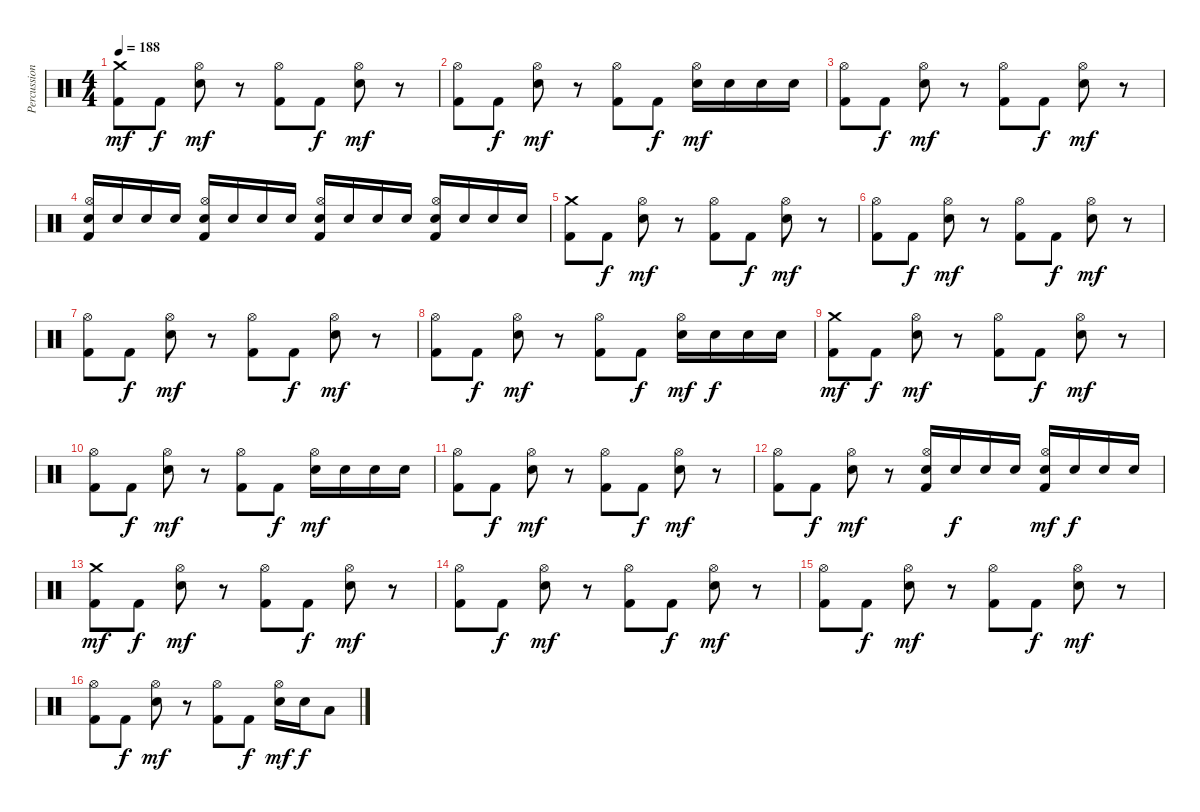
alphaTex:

\track ("Percussion" "Percussion") {instrument percussion}
\staff {score}
\articulation defaults
\ts (4 4)
\tempo 188
\clef neutral
\ks c
("Crash medium (hit)" "Kick (hit) 2").8{dy mf} "Kick (hit) 2".8{dy f} ("Hi-Hat (open)" "Snare (hit) 2").8{dy mf} r.8 ("Hi-Hat (open)" "Kick (hit) 2").8 "Kick (hit) 2".8{dy f} ("Hi-Hat (open)" "Snare (hit) 2").8{dy mf} r.8 |
("Hi-Hat (open)" "Kick (hit) 2").8 "Kick (hit) 2".8{dy f} ("Hi-Hat (open)" "Snare (hit) 2").8{dy mf} r.8 ("Hi-Hat (open)" "Kick (hit) 2").8 "Kick (hit) 2".8{dy f} ("Hi-Hat (open)" "Snare (hit) 2").16{dy mf} "Snare (hit) 2".16 "Snare (hit) 2".16 "Snare (hit) 2".16 |
("Hi-Hat (open)" "Kick (hit) 2").8 "Kick (hit) 2".8{dy f} ("Hi-Hat (open)" "Snare (hit) 2").8{dy mf} r.8 ("Hi-Hat (open)" "Kick (hit) 2").8 "Kick (hit) 2".8{dy f} ("Hi-Hat (open)" "Snare (hit) 2").8{dy mf} r.8 |
("Hi-Hat (open)" "Snare (hit) 2" "Kick (hit) 2").16 "Snare (hit) 2".16 "Snare (hit) 2".16 "Snare (hit) 2".16 ("Hi-Hat (open)" "Snare (hit) 2" "Kick (hit) 2").16 "Snare (hit) 2".16 "Snare (hit) 2".16 "Snare (hit) 2".16 ("Hi-Hat (open)" "Snare (hit) 2" "Kick (hit) 2").16 "Snare (hit) 2".16 "Snare (hit) 2".16 "Snare (hit) 2".16 ("Hi-Hat (open)" "Snare (hit) 2" "Kick (hit) 2").16 "Snare (hit) 2".16 "Snare (hit) 2".16 "Snare (hit) 2".16 |
("Crash medium (hit)" "Kick (hit) 2").8 "Kick (hit) 2".8{dy f} ("Hi-Hat (open)" "Snare (hit) 2").8{dy mf} r.8 ("Hi-Hat (open)" "Kick (hit) 2").8 "Kick (hit) 2".8{dy f} ("Hi-Hat (open)" "Snare (hit) 2").8{dy mf} r.8 |
("Hi-Hat (open)" "Kick (hit) 2").8 "Kick (hit) 2".8{dy f} ("Hi-Hat (open)" "Snare (hit) 2").8{dy mf} r.8 ("Hi-Hat (open)" "Kick (hit) 2").8 "Kick (hit) 2".8{dy f} ("Hi-Hat (open)" "Snare (hit) 2").8{dy mf} r.8 |
("Hi-Hat (open)" "Kick (hit) 2").8 "Kick (hit) 2".8{dy f} ("Hi-Hat (open)" "Snare (hit) 2").8{dy mf} r.8 ("Hi-Hat (open)" "Kick (hit) 2").8 "Kick (hit) 2".8{dy f} ("Hi-Hat (open)" "Snare (hit) 2").8{dy mf} r.8 |
("Hi-Hat (open)" "Kick (hit) 2").8 "Kick (hit) 2".8{dy f} ("Hi-Hat (open)" "Snare (hit) 2").8{dy mf} r.8 ("Hi-Hat (open)" "Kick (hit) 2").8 "Kick (hit) 2".8{dy f} ("Hi-Hat (open)" "Snare (hit) 2").16{dy mf} "Snare (hit) 2".16{dy f} "Snare (hit) 2".16 "Snare (hit) 2".16 |
("Crash medium (hit)" "Kick (hit) 2").8{dy mf} "Kick (hit) 2".8{dy f} ("Hi-Hat (open)" "Snare (hit) 2").8{dy mf} r.8 ("Hi-Hat (open)" "Kick (hit) 2").8 "Kick (hit) 2".8{dy f} ("Hi-Hat (open)" "Snare (hit) 2").8{dy mf} r.8 |
("Hi-Hat (open)" "Kick (hit) 2").8 "Kick (hit) 2".8{dy f} ("Hi-Hat (open)" "Snare (hit) 2").8{dy mf} r.8 ("Hi-Hat (open)" "Kick (hit) 2").8 "Kick (hit) 2".8{dy f} ("Hi-Hat (open)" "Snare (hit) 2").16{dy mf} "Snare (hit) 2".16 "Snare (hit) 2".16 "Snare (hit) 2".16 |
("Hi-Hat (open)" "Kick (hit) 2").8 "Kick (hit) 2".8{dy f} ("Hi-Hat (open)" "Snare (hit) 2").8{dy mf} r.8 ("Hi-Hat (open)" "Kick (hit) 2").8 "Kick (hit) 2".8{dy f} ("Hi-Hat (open)" "Snare (hit) 2").8{dy mf} r.8 |
("Hi-Hat (open)" "Kick (hit) 2").8 "Kick (hit) 2".8{dy f} ("Hi-Hat (open)" "Snare (hit) 2").8{dy mf} r.8 ("Hi-Hat (open)" "Snare (hit) 2" "Kick (hit) 2").16 "Snare (hit) 2".16{dy f} "Snare (hit) 2".16 "Snare (hit) 2".16 ("Hi-Hat (open)" "Snare (hit) 2" "Kick (hit) 2").16{dy mf} "Snare (hit) 2".16{dy f} "Snare (hit) 2".16 "Snare (hit) 2".16 |
("Crash medium (hit)" "Kick (hit) 2").8{dy mf} "Kick (hit) 2".8{dy f} ("Hi-Hat (open)" "Snare (hit) 2").8{dy mf} r.8 ("Hi-Hat (open)" "Kick (hit) 2").8 "Kick (hit) 2".8{dy f} ("Hi-Hat (open)" "Snare (hit) 2").8{dy mf} r.8 |
("Hi-Hat (open)" "Kick (hit) 2").8 "Kick (hit) 2".8{dy f} ("Hi-Hat (open)" "Snare (hit) 2").8{dy mf} r.8 ("Hi-Hat (open)" "Kick (hit) 2").8 "Kick (hit) 2".8{dy f} ("Hi-Hat (open)" "Snare (hit) 2").8{dy mf} r.8 |
("Hi-Hat (open)" "Kick (hit) 2").8 "Kick (hit) 2".8{dy f} ("Hi-Hat (open)" "Snare (hit) 2").8{dy mf} r.8 ("Hi-Hat (open)" "Kick (hit) 2").8 "Kick (hit) 2".8{dy f} ("Hi-Hat (open)" "Snare (hit) 2").8{dy mf} r.8 |
("Hi-Hat (open)" "Kick (hit) 2").8 "Kick (hit) 2".8{dy f} ("Hi-Hat (open)" "Snare (hit) 2").8{dy mf} r.8 ("Hi-Hat (open)" "Kick (hit) 2").8 "Kick (hit) 2".8{dy f} ("Hi-Hat (open)" "Snare (hit) 2").16{dy mf} "Snare (hit) 2".16{dy f} "Low Floor Tom (hit)".8
